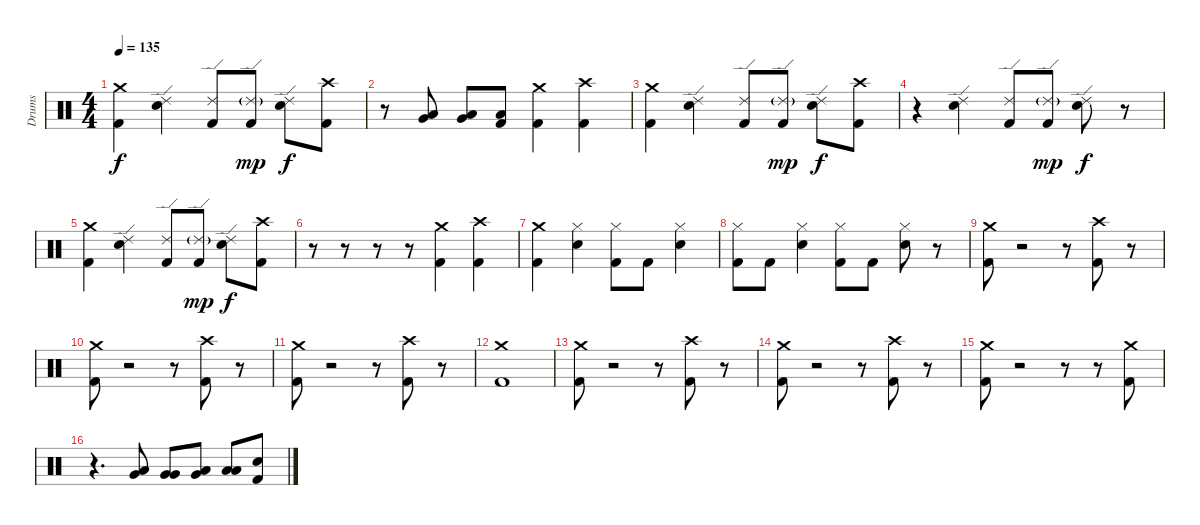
\track ("Drums" "Drums") {instrument percussion}
\staff {score}
\articulation defaults
\ts (4 4)
\tempo 135
\clef neutral
\ks c
("Crash medium (hit)" "Kick (hit) 2").4{dy f} ("Ride (edge) 2" "Electric Snare (hit)").4 ("Ride (edge) 2" "Kick (hit) 2").8 ("Ride (edge) 2"{g} "Kick (hit) 2").8{dy mp} ("Ride (edge) 2" "Electric Snare (hit)").8{dy f} ("Crash high (hit)" "Kick (hit) 2").8 |
r.8 ("Very Low Tom (hit)" "Low Tom (hit)").8 ("Low Floor Tom (hit)" "Very Low Tom (hit)").8 ("Kick (hit) 2" "Low Floor Tom (hit)").8 ("Crash medium (hit)" "Kick (hit) 2").4 ("Kick (hit) 2" "Crash high (hit)").4 |
("Kick (hit) 2" "Crash medium (hit)").4 ("Ride (edge) 2" "Electric Snare (hit)").4 ("Ride (edge) 2" "Kick (hit) 2").8 ("Ride (edge) 2"{g} "Kick (hit) 2").8{dy mp} ("Ride (edge) 2" "Electric Snare (hit)").8{dy f} ("Crash high (hit)" "Kick (hit) 2").8 |
r.4 ("Ride (edge) 2" "Electric Snare (hit)").4 ("Ride (edge) 2" "Kick (hit) 2").8 ("Ride (edge) 2"{g} "Kick (hit) 2").8{dy mp} ("Ride (edge) 2" "Electric Snare (hit)").8{dy f} r.8 |
("Crash medium (hit)" "Kick (hit) 2").4 ("Ride (edge) 2" "Electric Snare (hit)").4 ("Ride (edge) 2" "Kick (hit) 2").8 ("Ride (edge) 2"{g} "Kick (hit) 2").8{dy mp} ("Ride (edge) 2" "Electric Snare (hit)").8{dy f} ("Crash high (hit)" "Kick (hit) 2").8 |
r.8 r.8 r.8 r.8 ("Crash medium (hit)" "Kick (hit) 2").4 ("Kick (hit) 2" "Crash high (hit)").4 |
("Crash medium (hit)" "Kick (hit) 2").4 ("Electric Snare (hit)" "Hi-Hat (closed)").4 ("Hi-Hat (closed)" "Kick (hit) 2").8 "Kick (hit) 2".8 ("Hi-Hat (closed)" "Electric Snare (hit)").4 |
("Hi-Hat (closed)" "Kick (hit) 2").8 "Kick (hit) 2".8 ("Hi-Hat (closed)" "Electric Snare (hit)").4 ("Hi-Hat (closed)" "Kick (hit) 2").8 "Kick (hit) 2".8 ("Electric Snare (hit)" "Hi-Hat (closed)").8 r.8 |
("Crash medium (hit)" "Kick (hit) 2").8{volume 13} r.2{volume 0} r.8 ("Kick (hit) 2" "Crash high (hit)").8{volume 13} r.8{volume 0} |
("Crash medium (hit)" "Kick (hit) 2").8{volume 13} r.2{volume 0} r.8 ("Kick (hit) 2" "Crash high (hit)").8{volume 13} r.8{volume 0} |
("Crash medium (hit)" "Kick (hit) 2").8{volume 13} r.2{volume 0} r.8 ("Kick (hit) 2" "Crash high (hit)").8{volume 13} r.8{volume 0} |
("Crash medium (hit)" "Kick (hit) 2").1{volume 13} |
("Crash medium (hit)" "Kick (hit) 2").8{volume 13} r.2{volume 0} r.8 ("Kick (hit) 2" "Crash high (hit)").8{volume 13} r.8{volume 0} |
("Crash medium (hit)" "Kick (hit) 2").8{volume 13} r.2{volume 0} r.8 ("Kick (hit) 2" "Crash high (hit)").8{volume 13} r.8{volume 0} |
("Crash medium (hit)" "Kick (hit) 2").8{volume 13} r.2{volume 0} r.8 r.8 ("Crash medium (hit)" "Kick (hit) 2").8{volume 13} |
r.4{d} ("Low Tom (hit)" "Very Low Tom (hit)").8 ("Very Low Tom (hit)" "Very Low Tom (hit)").8 ("Very Low Tom (hit)" "Low Floor Tom (hit)").8 ("Low Floor Tom (hit)" "Low Floor Tom (hit)").8 ("Electric Snare (hit)" "Kick (hit) 2").8
